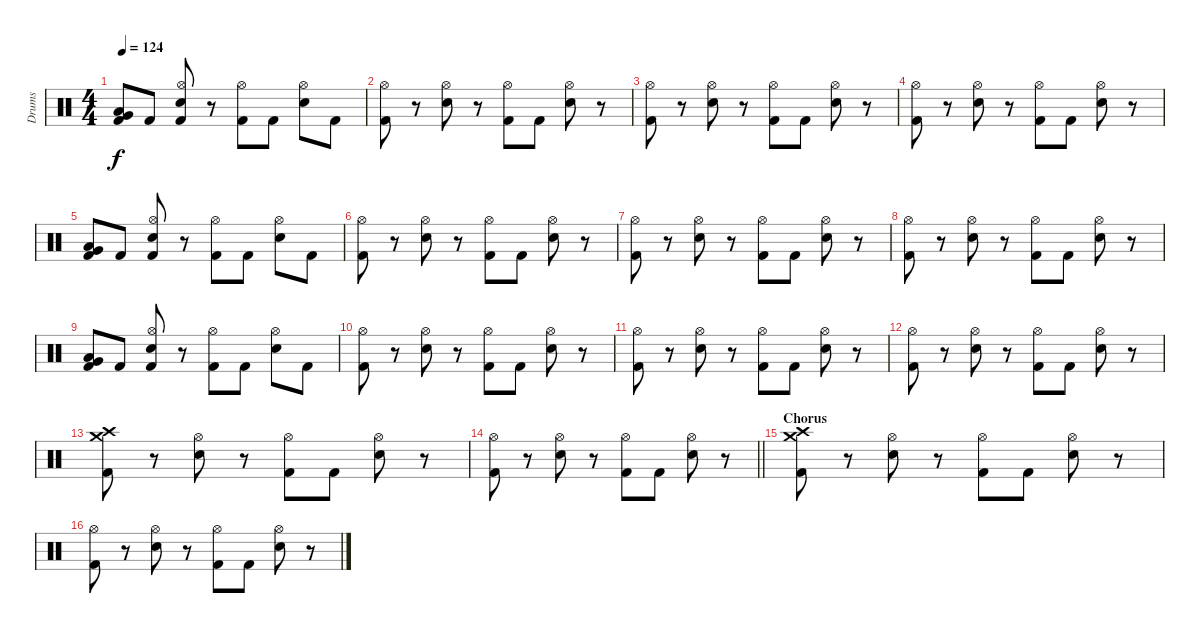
\track ("Drums" "Drums") {instrument percussion}
\staff {score}
\articulation defaults
\ts (4 4)
\tempo 124
\clef neutral
\ks c
("Very Low Tom (hit)" "Low Tom (hit)" "Kick (hit) 2").8{dy f} "Kick (hit) 2".8 ("Hi-Hat (open)" "Electric Snare (hit)" "Kick (hit) 2").8 r.8 ("Hi-Hat (open)" "Kick (hit) 2").8 "Kick (hit) 2".8 ("Hi-Hat (open)" "Electric Snare (hit)").8 "Kick (hit) 2".8 |
("Hi-Hat (open)" "Kick (hit) 2").8 r.8 ("Hi-Hat (open)" "Electric Snare (hit)").8 r.8 ("Hi-Hat (open)" "Kick (hit) 2").8 "Kick (hit) 2".8 ("Hi-Hat (open)" "Electric Snare (hit)").8 r.8 |
("Hi-Hat (open)" "Kick (hit) 2").8 r.8 ("Hi-Hat (open)" "Electric Snare (hit)").8 r.8 ("Hi-Hat (open)" "Kick (hit) 2").8 "Kick (hit) 2".8 ("Hi-Hat (open)" "Electric Snare (hit)").8 r.8 |
("Hi-Hat (open)" "Kick (hit) 2").8 r.8 ("Hi-Hat (open)" "Electric Snare (hit)").8 r.8 ("Hi-Hat (open)" "Kick (hit) 2").8 "Kick (hit) 2".8 ("Hi-Hat (open)" "Electric Snare (hit)").8 r.8 |
("Very Low Tom (hit)" "Low Tom (hit)" "Kick (hit) 2").8 "Kick (hit) 2".8 ("Hi-Hat (open)" "Electric Snare (hit)" "Kick (hit) 2").8 r.8 ("Hi-Hat (open)" "Kick (hit) 2").8 "Kick (hit) 2".8 ("Hi-Hat (open)" "Electric Snare (hit)").8 "Kick (hit) 2".8 |
("Hi-Hat (open)" "Kick (hit) 2").8 r.8 ("Hi-Hat (open)" "Electric Snare (hit)").8 r.8 ("Hi-Hat (open)" "Kick (hit) 2").8 "Kick (hit) 2".8 ("Hi-Hat (open)" "Electric Snare (hit)").8 r.8 |
("Hi-Hat (open)" "Kick (hit) 2").8 r.8 ("Hi-Hat (open)" "Electric Snare (hit)").8 r.8 ("Hi-Hat (open)" "Kick (hit) 2").8 "Kick (hit) 2".8 ("Hi-Hat (open)" "Electric Snare (hit)").8 r.8 |
("Hi-Hat (open)" "Kick (hit) 2").8 r.8 ("Hi-Hat (open)" "Electric Snare (hit)").8 r.8 ("Hi-Hat (open)" "Kick (hit) 2").8 "Kick (hit) 2".8 ("Hi-Hat (open)" "Electric Snare (hit)").8 r.8 |
("Very Low Tom (hit)" "Low Tom (hit)" "Kick (hit) 2").8 "Kick (hit) 2".8 ("Hi-Hat (open)" "Electric Snare (hit)" "Kick (hit) 2").8 r.8 ("Hi-Hat (open)" "Kick (hit) 2").8 "Kick (hit) 2".8 ("Hi-Hat (open)" "Electric Snare (hit)").8 "Kick (hit) 2".8 |
("Hi-Hat (open)" "Kick (hit) 2").8 r.8 ("Hi-Hat (open)" "Electric Snare (hit)").8 r.8 ("Hi-Hat (open)" "Kick (hit) 2").8 "Kick (hit) 2".8 ("Hi-Hat (open)" "Electric Snare (hit)").8 r.8 |
("Hi-Hat (open)" "Kick (hit) 2").8 r.8 ("Hi-Hat (open)" "Electric Snare (hit)").8 r.8 ("Hi-Hat (open)" "Kick (hit) 2").8 "Kick (hit) 2".8 ("Hi-Hat (open)" "Electric Snare (hit)").8 r.8 |
("Hi-Hat (open)" "Kick (hit) 2").8 r.8 ("Hi-Hat (open)" "Electric Snare (hit)").8 r.8 ("Hi-Hat (open)" "Kick (hit) 2").8 "Kick (hit) 2".8 ("Hi-Hat (open)" "Electric Snare (hit)").8 r.8 |
("Crash medium (hit)" "Crash high (hit)" "Kick (hit) 2").8 r.8 ("Hi-Hat (open)" "Electric Snare (hit)").8 r.8 ("Hi-Hat (open)" "Kick (hit) 2").8 "Kick (hit) 2".8 ("Hi-Hat (open)" "Electric Snare (hit)").8 r.8 |
\barLineRight lightlight
("Hi-Hat (open)" "Kick (hit) 2").8 r.8 ("Hi-Hat (open)" "Electric Snare (hit)").8 r.8 ("Hi-Hat (open)" "Kick (hit) 2").8 "Kick (hit) 2".8 ("Hi-Hat (open)" "Electric Snare (hit)").8 r.8 |
\section ("" "Chorus")
("Crash medium (hit)" "Crash high (hit)" "Kick (hit) 2").8 r.8 ("Hi-Hat (open)" "Electric Snare (hit)").8 r.8 ("Hi-Hat (open)" "Kick (hit) 2").8 "Kick (hit) 2".8 ("Hi-Hat (open)" "Electric Snare (hit)").8 r.8 |
("Hi-Hat (open)" "Kick (hit) 2").8 r.8 ("Hi-Hat (open)" "Electric Snare (hit)").8 r.8 ("Hi-Hat (open)" "Kick (hit) 2").8 "Kick (hit) 2".8 ("Hi-Hat (open)" "Electric Snare (hit)").8 r.8
